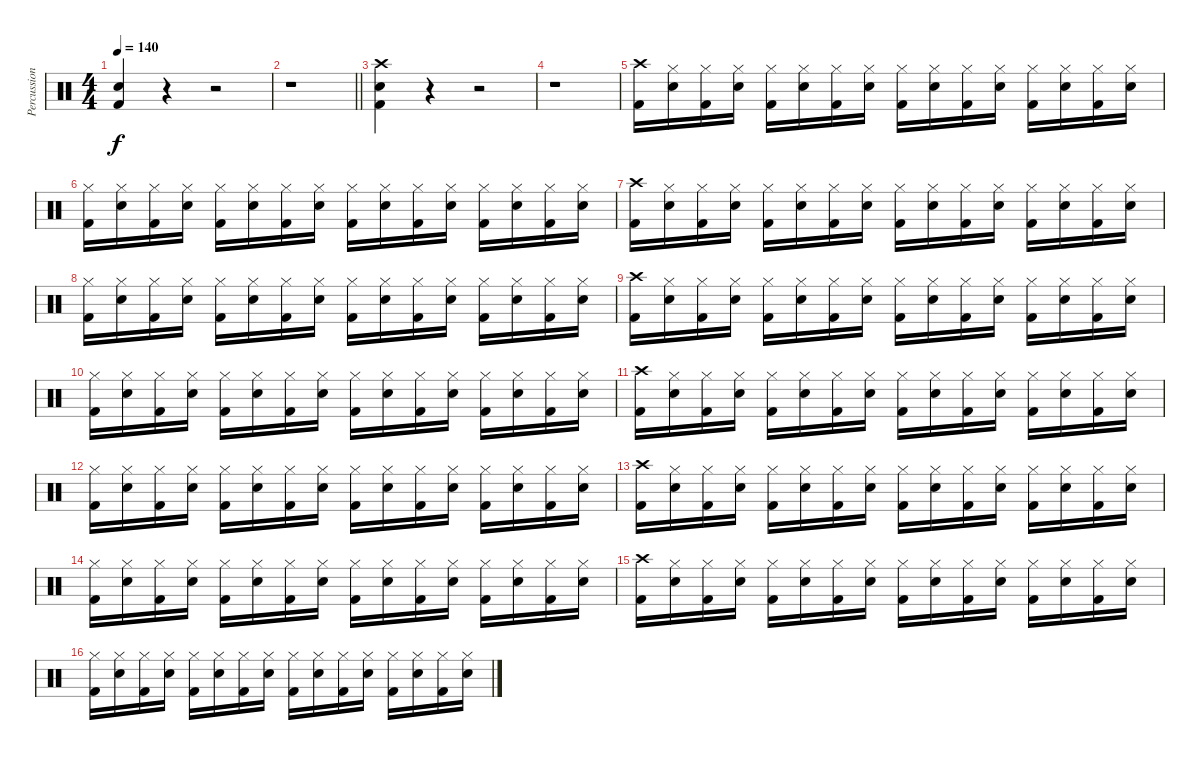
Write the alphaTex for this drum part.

\track ("Percussions" "Percussion") {instrument percussion}
\staff {score}
\articulation defaults
\ts (4 4)
\tempo 140
\clef neutral
\ks c
("Electric Snare (hit)" "Kick (hit) 2").4{dy f} r.4 r.2 |
\barLineRight lightlight
r.1 |
("Crash high (hit)" "Electric Snare (hit)" "Kick (hit) 2").4 r.4 r.2 |
r.1 |
("Crash high (hit)" "Kick (hit) 2").16 ("Hi-Hat (closed)" "Electric Snare (hit)").16 ("Hi-Hat (closed)" "Kick (hit) 2").16 ("Hi-Hat (closed)" "Electric Snare (hit)").16 ("Hi-Hat (closed)" "Kick (hit) 2").16 ("Hi-Hat (closed)" "Electric Snare (hit)").16 ("Hi-Hat (closed)" "Kick (hit) 2").16 ("Hi-Hat (closed)" "Electric Snare (hit)").16 ("Hi-Hat (closed)" "Kick (hit) 2").16 ("Hi-Hat (closed)" "Electric Snare (hit)").16 ("Hi-Hat (closed)" "Kick (hit) 2").16 ("Hi-Hat (closed)" "Electric Snare (hit)").16 ("Hi-Hat (closed)" "Kick (hit) 2").16 ("Hi-Hat (closed)" "Electric Snare (hit)").16 ("Hi-Hat (closed)" "Kick (hit) 2").16 ("Hi-Hat (closed)" "Electric Snare (hit)").16 |
("Hi-Hat (closed)" "Kick (hit) 2").16 ("Hi-Hat (closed)" "Electric Snare (hit)").16 ("Hi-Hat (closed)" "Kick (hit) 2").16 ("Hi-Hat (closed)" "Electric Snare (hit)").16 ("Hi-Hat (closed)" "Kick (hit) 2").16 ("Hi-Hat (closed)" "Electric Snare (hit)").16 ("Hi-Hat (closed)" "Kick (hit) 2").16 ("Hi-Hat (closed)" "Electric Snare (hit)").16 ("Hi-Hat (closed)" "Kick (hit) 2").16 ("Hi-Hat (closed)" "Electric Snare (hit)").16 ("Hi-Hat (closed)" "Kick (hit) 2").16 ("Hi-Hat (closed)" "Electric Snare (hit)").16 ("Hi-Hat (closed)" "Kick (hit) 2").16 ("Hi-Hat (closed)" "Electric Snare (hit)").16 ("Hi-Hat (closed)" "Kick (hit) 2").16 ("Hi-Hat (closed)" "Electric Snare (hit)").16 |
("Crash high (hit)" "Kick (hit) 2").16 ("Hi-Hat (closed)" "Electric Snare (hit)").16 ("Hi-Hat (closed)" "Kick (hit) 2").16 ("Hi-Hat (closed)" "Electric Snare (hit)").16 ("Hi-Hat (closed)" "Kick (hit) 2").16 ("Hi-Hat (closed)" "Electric Snare (hit)").16 ("Hi-Hat (closed)" "Kick (hit) 2").16 ("Hi-Hat (closed)" "Electric Snare (hit)").16 ("Hi-Hat (closed)" "Kick (hit) 2").16 ("Hi-Hat (closed)" "Electric Snare (hit)").16 ("Hi-Hat (closed)" "Kick (hit) 2").16 ("Hi-Hat (closed)" "Electric Snare (hit)").16 ("Hi-Hat (closed)" "Kick (hit) 2").16 ("Hi-Hat (closed)" "Electric Snare (hit)").16 ("Hi-Hat (closed)" "Kick (hit) 2").16 ("Hi-Hat (closed)" "Electric Snare (hit)").16 |
("Hi-Hat (closed)" "Kick (hit) 2").16 ("Hi-Hat (closed)" "Electric Snare (hit)").16 ("Hi-Hat (closed)" "Kick (hit) 2").16 ("Hi-Hat (closed)" "Electric Snare (hit)").16 ("Hi-Hat (closed)" "Kick (hit) 2").16 ("Hi-Hat (closed)" "Electric Snare (hit)").16 ("Hi-Hat (closed)" "Kick (hit) 2").16 ("Hi-Hat (closed)" "Electric Snare (hit)").16 ("Hi-Hat (closed)" "Kick (hit) 2").16 ("Hi-Hat (closed)" "Electric Snare (hit)").16 ("Hi-Hat (closed)" "Kick (hit) 2").16 ("Hi-Hat (closed)" "Electric Snare (hit)").16 ("Hi-Hat (closed)" "Kick (hit) 2").16 ("Hi-Hat (closed)" "Electric Snare (hit)").16 ("Hi-Hat (closed)" "Kick (hit) 2").16 ("Hi-Hat (closed)" "Electric Snare (hit)").16 |
("Crash high (hit)" "Kick (hit) 2").16 ("Hi-Hat (closed)" "Electric Snare (hit)").16 ("Hi-Hat (closed)" "Kick (hit) 2").16 ("Hi-Hat (closed)" "Electric Snare (hit)").16 ("Hi-Hat (closed)" "Kick (hit) 2").16 ("Hi-Hat (closed)" "Electric Snare (hit)").16 ("Hi-Hat (closed)" "Kick (hit) 2").16 ("Hi-Hat (closed)" "Electric Snare (hit)").16 ("Hi-Hat (closed)" "Kick (hit) 2").16 ("Hi-Hat (closed)" "Electric Snare (hit)").16 ("Hi-Hat (closed)" "Kick (hit) 2").16 ("Hi-Hat (closed)" "Electric Snare (hit)").16 ("Hi-Hat (closed)" "Kick (hit) 2").16 ("Hi-Hat (closed)" "Electric Snare (hit)").16 ("Hi-Hat (closed)" "Kick (hit) 2").16 ("Hi-Hat (closed)" "Electric Snare (hit)").16 |
("Hi-Hat (closed)" "Kick (hit) 2").16 ("Hi-Hat (closed)" "Electric Snare (hit)").16 ("Hi-Hat (closed)" "Kick (hit) 2").16 ("Hi-Hat (closed)" "Electric Snare (hit)").16 ("Hi-Hat (closed)" "Kick (hit) 2").16 ("Hi-Hat (closed)" "Electric Snare (hit)").16 ("Hi-Hat (closed)" "Kick (hit) 2").16 ("Hi-Hat (closed)" "Electric Snare (hit)").16 ("Hi-Hat (closed)" "Kick (hit) 2").16 ("Hi-Hat (closed)" "Electric Snare (hit)").16 ("Hi-Hat (closed)" "Kick (hit) 2").16 ("Hi-Hat (closed)" "Electric Snare (hit)").16 ("Hi-Hat (closed)" "Kick (hit) 2").16 ("Hi-Hat (closed)" "Electric Snare (hit)").16 ("Hi-Hat (closed)" "Kick (hit) 2").16 ("Hi-Hat (closed)" "Electric Snare (hit)").16 |
("Crash high (hit)" "Kick (hit) 2").16 ("Hi-Hat (closed)" "Electric Snare (hit)").16 ("Hi-Hat (closed)" "Kick (hit) 2").16 ("Hi-Hat (closed)" "Electric Snare (hit)").16 ("Hi-Hat (closed)" "Kick (hit) 2").16 ("Hi-Hat (closed)" "Electric Snare (hit)").16 ("Hi-Hat (closed)" "Kick (hit) 2").16 ("Hi-Hat (closed)" "Electric Snare (hit)").16 ("Hi-Hat (closed)" "Kick (hit) 2").16 ("Hi-Hat (closed)" "Electric Snare (hit)").16 ("Hi-Hat (closed)" "Kick (hit) 2").16 ("Hi-Hat (closed)" "Electric Snare (hit)").16 ("Hi-Hat (closed)" "Kick (hit) 2").16 ("Hi-Hat (closed)" "Electric Snare (hit)").16 ("Hi-Hat (closed)" "Kick (hit) 2").16 ("Hi-Hat (closed)" "Electric Snare (hit)").16 |
("Hi-Hat (closed)" "Kick (hit) 2").16 ("Hi-Hat (closed)" "Electric Snare (hit)").16 ("Hi-Hat (closed)" "Kick (hit) 2").16 ("Hi-Hat (closed)" "Electric Snare (hit)").16 ("Hi-Hat (closed)" "Kick (hit) 2").16 ("Hi-Hat (closed)" "Electric Snare (hit)").16 ("Hi-Hat (closed)" "Kick (hit) 2").16 ("Hi-Hat (closed)" "Electric Snare (hit)").16 ("Hi-Hat (closed)" "Kick (hit) 2").16 ("Hi-Hat (closed)" "Electric Snare (hit)").16 ("Hi-Hat (closed)" "Kick (hit) 2").16 ("Hi-Hat (closed)" "Electric Snare (hit)").16 ("Hi-Hat (closed)" "Kick (hit) 2").16 ("Hi-Hat (closed)" "Electric Snare (hit)").16 ("Hi-Hat (closed)" "Kick (hit) 2").16 ("Hi-Hat (closed)" "Electric Snare (hit)").16 |
("Crash high (hit)" "Kick (hit) 2").16 ("Hi-Hat (closed)" "Electric Snare (hit)").16 ("Hi-Hat (closed)" "Kick (hit) 2").16 ("Hi-Hat (closed)" "Electric Snare (hit)").16 ("Hi-Hat (closed)" "Kick (hit) 2").16 ("Hi-Hat (closed)" "Electric Snare (hit)").16 ("Hi-Hat (closed)" "Kick (hit) 2").16 ("Hi-Hat (closed)" "Electric Snare (hit)").16 ("Hi-Hat (closed)" "Kick (hit) 2").16 ("Hi-Hat (closed)" "Electric Snare (hit)").16 ("Hi-Hat (closed)" "Kick (hit) 2").16 ("Hi-Hat (closed)" "Electric Snare (hit)").16 ("Hi-Hat (closed)" "Kick (hit) 2").16 ("Hi-Hat (closed)" "Electric Snare (hit)").16 ("Hi-Hat (closed)" "Kick (hit) 2").16 ("Hi-Hat (closed)" "Electric Snare (hit)").16 |
("Hi-Hat (closed)" "Kick (hit) 2").16 ("Hi-Hat (closed)" "Electric Snare (hit)").16 ("Hi-Hat (closed)" "Kick (hit) 2").16 ("Hi-Hat (closed)" "Electric Snare (hit)").16 ("Hi-Hat (closed)" "Kick (hit) 2").16 ("Hi-Hat (closed)" "Electric Snare (hit)").16 ("Hi-Hat (closed)" "Kick (hit) 2").16 ("Hi-Hat (closed)" "Electric Snare (hit)").16 ("Hi-Hat (closed)" "Kick (hit) 2").16 ("Hi-Hat (closed)" "Electric Snare (hit)").16 ("Hi-Hat (closed)" "Kick (hit) 2").16 ("Hi-Hat (closed)" "Electric Snare (hit)").16 ("Hi-Hat (closed)" "Kick (hit) 2").16 ("Hi-Hat (closed)" "Electric Snare (hit)").16 ("Hi-Hat (closed)" "Kick (hit) 2").16 ("Hi-Hat (closed)" "Electric Snare (hit)").16 |
("Crash high (hit)" "Kick (hit) 2").16 ("Hi-Hat (closed)" "Electric Snare (hit)").16 ("Hi-Hat (closed)" "Kick (hit) 2").16 ("Hi-Hat (closed)" "Electric Snare (hit)").16 ("Hi-Hat (closed)" "Kick (hit) 2").16 ("Hi-Hat (closed)" "Electric Snare (hit)").16 ("Hi-Hat (closed)" "Kick (hit) 2").16 ("Hi-Hat (closed)" "Electric Snare (hit)").16 ("Hi-Hat (closed)" "Kick (hit) 2").16 ("Hi-Hat (closed)" "Electric Snare (hit)").16 ("Hi-Hat (closed)" "Kick (hit) 2").16 ("Hi-Hat (closed)" "Electric Snare (hit)").16 ("Hi-Hat (closed)" "Kick (hit) 2").16 ("Hi-Hat (closed)" "Electric Snare (hit)").16 ("Hi-Hat (closed)" "Kick (hit) 2").16 ("Hi-Hat (closed)" "Electric Snare (hit)").16 |
("Hi-Hat (closed)" "Kick (hit) 2").16 ("Hi-Hat (closed)" "Electric Snare (hit)").16 ("Hi-Hat (closed)" "Kick (hit) 2").16 ("Hi-Hat (closed)" "Electric Snare (hit)").16 ("Hi-Hat (closed)" "Kick (hit) 2").16 ("Hi-Hat (closed)" "Electric Snare (hit)").16 ("Hi-Hat (closed)" "Kick (hit) 2").16 ("Hi-Hat (closed)" "Electric Snare (hit)").16 ("Hi-Hat (closed)" "Kick (hit) 2").16 ("Hi-Hat (closed)" "Electric Snare (hit)").16 ("Hi-Hat (closed)" "Kick (hit) 2").16 ("Hi-Hat (closed)" "Electric Snare (hit)").16 ("Hi-Hat (closed)" "Kick (hit) 2").16 ("Hi-Hat (closed)" "Electric Snare (hit)").16 ("Hi-Hat (closed)" "Kick (hit) 2").16 ("Hi-Hat (closed)" "Electric Snare (hit)").16
